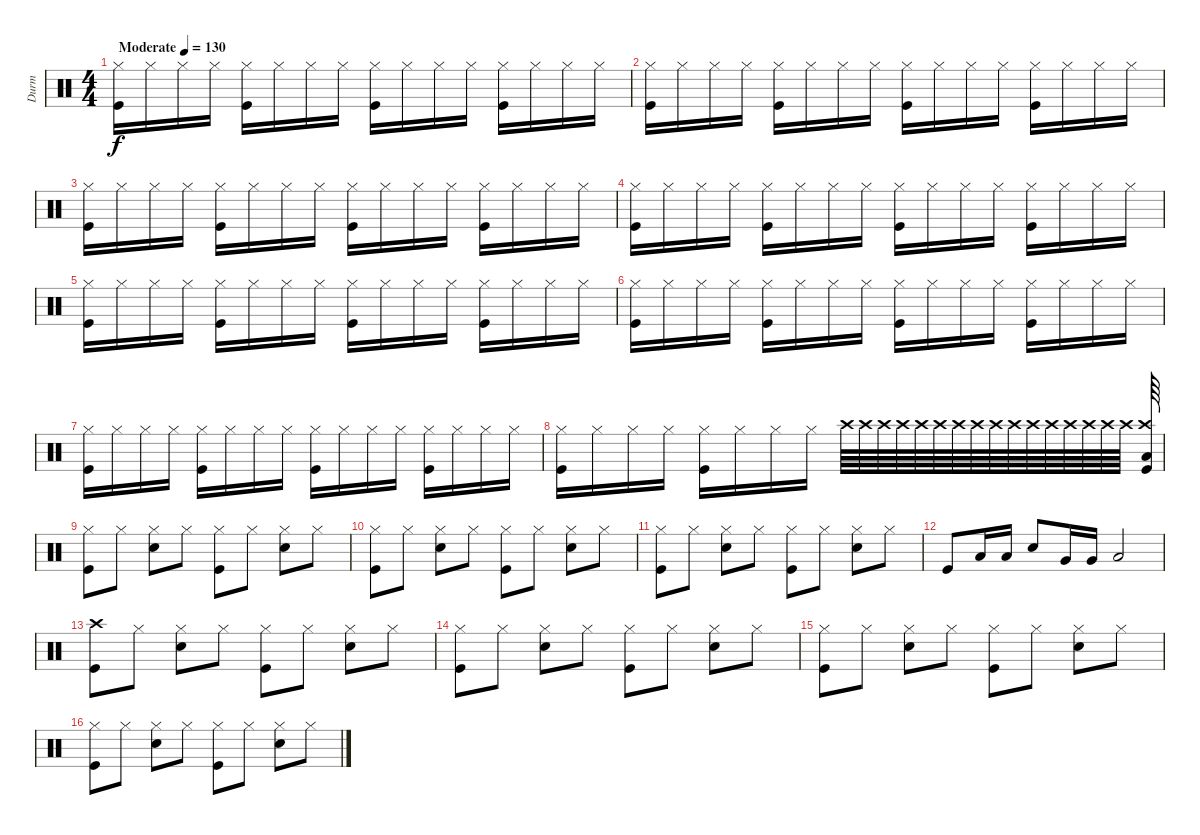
\track ("Durm" "Durm") {instrument percussion}
\staff {score}
\articulation defaults
\ts (4 4)
\tempo (130 "Moderate")
\clef neutral
\ks c
("Hi-Hat (closed)" "Kick (hit)").16{dy f} "Hi-Hat (closed)".16 "Hi-Hat (closed)".16 "Hi-Hat (closed)".16 ("Hi-Hat (closed)" "Kick (hit)").16 "Hi-Hat (closed)".16 "Hi-Hat (closed)".16 "Hi-Hat (closed)".16 ("Hi-Hat (closed)" "Kick (hit)").16 "Hi-Hat (closed)".16 "Hi-Hat (closed)".16 "Hi-Hat (closed)".16 ("Hi-Hat (closed)" "Kick (hit)").16 "Hi-Hat (closed)".16 "Hi-Hat (closed)".16 "Hi-Hat (closed)".16 |
("Hi-Hat (closed)" "Kick (hit)").16 "Hi-Hat (closed)".16 "Hi-Hat (closed)".16 "Hi-Hat (closed)".16 ("Hi-Hat (closed)" "Kick (hit)").16 "Hi-Hat (closed)".16 "Hi-Hat (closed)".16 "Hi-Hat (closed)".16 ("Hi-Hat (closed)" "Kick (hit)").16 "Hi-Hat (closed)".16 "Hi-Hat (closed)".16 "Hi-Hat (closed)".16 ("Hi-Hat (closed)" "Kick (hit)").16 "Hi-Hat (closed)".16 "Hi-Hat (closed)".16 "Hi-Hat (closed)".16 |
("Hi-Hat (closed)" "Kick (hit)").16 "Hi-Hat (closed)".16 "Hi-Hat (closed)".16 "Hi-Hat (closed)".16 ("Hi-Hat (closed)" "Kick (hit)").16 "Hi-Hat (closed)".16 "Hi-Hat (closed)".16 "Hi-Hat (closed)".16 ("Hi-Hat (closed)" "Kick (hit)").16 "Hi-Hat (closed)".16 "Hi-Hat (closed)".16 "Hi-Hat (closed)".16 ("Hi-Hat (closed)" "Kick (hit)").16 "Hi-Hat (closed)".16 "Hi-Hat (closed)".16 "Hi-Hat (closed)".16 |
("Hi-Hat (closed)" "Kick (hit)").16 "Hi-Hat (closed)".16 "Hi-Hat (closed)".16 "Hi-Hat (closed)".16 ("Hi-Hat (closed)" "Kick (hit)").16 "Hi-Hat (closed)".16 "Hi-Hat (closed)".16 "Hi-Hat (closed)".16 ("Hi-Hat (closed)" "Kick (hit)").16 "Hi-Hat (closed)".16 "Hi-Hat (closed)".16 "Hi-Hat (closed)".16 ("Hi-Hat (closed)" "Kick (hit)").16 "Hi-Hat (closed)".16 "Hi-Hat (closed)".16 "Hi-Hat (closed)".16 |
("Hi-Hat (closed)" "Kick (hit)").16 "Hi-Hat (closed)".16 "Hi-Hat (closed)".16 "Hi-Hat (closed)".16 ("Hi-Hat (closed)" "Kick (hit)").16 "Hi-Hat (closed)".16 "Hi-Hat (closed)".16 "Hi-Hat (closed)".16 ("Hi-Hat (closed)" "Kick (hit)").16 "Hi-Hat (closed)".16 "Hi-Hat (closed)".16 "Hi-Hat (closed)".16 ("Hi-Hat (closed)" "Kick (hit)").16 "Hi-Hat (closed)".16 "Hi-Hat (closed)".16 "Hi-Hat (closed)".16 |
("Hi-Hat (closed)" "Kick (hit)").16 "Hi-Hat (closed)".16 "Hi-Hat (closed)".16 "Hi-Hat (closed)".16 ("Hi-Hat (closed)" "Kick (hit)").16 "Hi-Hat (closed)".16 "Hi-Hat (closed)".16 "Hi-Hat (closed)".16 ("Hi-Hat (closed)" "Kick (hit)").16 "Hi-Hat (closed)".16 "Hi-Hat (closed)".16 "Hi-Hat (closed)".16 ("Hi-Hat (closed)" "Kick (hit)").16 "Hi-Hat (closed)".16 "Hi-Hat (closed)".16 "Hi-Hat (closed)".16 |
("Hi-Hat (closed)" "Kick (hit)").16 "Hi-Hat (closed)".16 "Hi-Hat (closed)".16 "Hi-Hat (closed)".16 ("Hi-Hat (closed)" "Kick (hit)").16 "Hi-Hat (closed)".16 "Hi-Hat (closed)".16 "Hi-Hat (closed)".16 ("Hi-Hat (closed)" "Kick (hit)").16 "Hi-Hat (closed)".16 "Hi-Hat (closed)".16 "Hi-Hat (closed)".16 ("Hi-Hat (closed)" "Kick (hit)").16 "Hi-Hat (closed)".16 "Hi-Hat (closed)".16 "Hi-Hat (closed)".16 |
("Hi-Hat (closed)" "Kick (hit)").16 "Hi-Hat (closed)".16 "Hi-Hat (closed)".16 "Hi-Hat (closed)".16 ("Hi-Hat (closed)" "Kick (hit)").16 "Hi-Hat (closed)".16 "Hi-Hat (closed)".16 "Hi-Hat (closed)".16 "Crash high (hit)".64{volume 0} "Crash high (hit)".64{volume 16} "Crash high (hit)".64 "Crash high (hit)".64 "Crash high (hit)".64 "Crash high (hit)".64 "Crash high (hit)".64 "Crash high (hit)".64 "Crash high (hit)".64 "Crash high (hit)".64 "Crash high (hit)".64 "Crash high (hit)".64 "Crash high (hit)".64 "Crash high (hit)".64 "Crash high (hit)".64 "Crash high (hit)".64 ("Crash high (hit)" "Low Floor Tom (hit)" "Kick (hit)").64 |
("Hi-Hat (closed)" "Kick (hit)").8 "Hi-Hat (closed)".8 ("Hi-Hat (closed)" "Electric Snare (hit)").8 "Hi-Hat (closed)".8 ("Hi-Hat (closed)" "Kick (hit)").8 "Hi-Hat (closed)".8 ("Hi-Hat (closed)" "Electric Snare (hit)").8 "Hi-Hat (closed)".8 |
("Hi-Hat (closed)" "Kick (hit)").8 "Hi-Hat (closed)".8 ("Hi-Hat (closed)" "Electric Snare (hit)").8 "Hi-Hat (closed)".8 ("Hi-Hat (closed)" "Kick (hit)").8 "Hi-Hat (closed)".8 ("Hi-Hat (closed)" "Electric Snare (hit)").8 "Hi-Hat (closed)".8 |
("Hi-Hat (closed)" "Kick (hit)").8 "Hi-Hat (closed)".8 ("Hi-Hat (closed)" "Electric Snare (hit)").8 "Hi-Hat (closed)".8 ("Hi-Hat (closed)" "Kick (hit)").8 "Hi-Hat (closed)".8 ("Hi-Hat (closed)" "Electric Snare (hit)").8 "Hi-Hat (closed)".8 |
"Kick (hit)".8 "Low Tom (hit)".16 "Low Tom (hit)".16 "Electric Snare (hit)".8 "Very Low Tom (hit)".16 "Very Low Tom (hit)".16 "Low Floor Tom (hit)".2 |
("Crash high (hit)" "Kick (hit)").8 "Hi-Hat (closed)".8 ("Hi-Hat (closed)" "Electric Snare (hit)").8 "Hi-Hat (closed)".8 ("Hi-Hat (closed)" "Kick (hit)").8 "Hi-Hat (closed)".8 ("Hi-Hat (closed)" "Electric Snare (hit)").8 "Hi-Hat (closed)".8 |
("Hi-Hat (closed)" "Kick (hit)").8 "Hi-Hat (closed)".8 ("Hi-Hat (closed)" "Electric Snare (hit)").8 "Hi-Hat (closed)".8 ("Hi-Hat (closed)" "Kick (hit)").8 "Hi-Hat (closed)".8 ("Hi-Hat (closed)" "Electric Snare (hit)").8 "Hi-Hat (closed)".8 |
("Hi-Hat (closed)" "Kick (hit)").8 "Hi-Hat (closed)".8 ("Hi-Hat (closed)" "Electric Snare (hit)").8 "Hi-Hat (closed)".8 ("Hi-Hat (closed)" "Kick (hit)").8 "Hi-Hat (closed)".8 ("Hi-Hat (closed)" "Electric Snare (hit)").8 "Hi-Hat (closed)".8 |
("Hi-Hat (closed)" "Kick (hit)").8 "Hi-Hat (closed)".8 ("Hi-Hat (closed)" "Electric Snare (hit)").8 "Hi-Hat (closed)".8 ("Hi-Hat (closed)" "Kick (hit)").8 "Hi-Hat (closed)".8 ("Hi-Hat (closed)" "Electric Snare (hit)").8 "Hi-Hat (closed)".8
